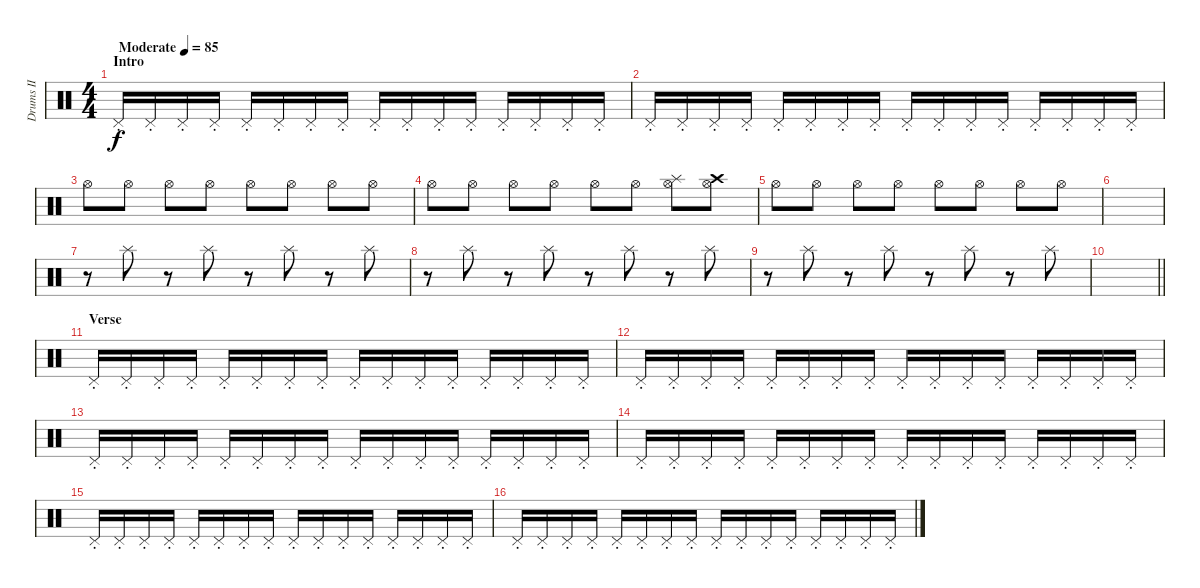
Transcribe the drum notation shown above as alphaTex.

\track ("Drums II" "Drums II") {instrument percussion}
\staff {score}
\articulation defaults
\ts (4 4)
\section ("" "Intro")
\tempo (85 "Moderate")
\clef neutral
\ks c "Pedal Hi-Hat (hit)"{st}.16{dy f} "Pedal Hi-Hat (hit)"{st}.16 "Pedal Hi-Hat (hit)"{st}.16 "Pedal Hi-Hat (hit)"{st}.16 "Pedal Hi-Hat (hit)"{st}.16 "Pedal Hi-Hat (hit)"{st}.16 "Pedal Hi-Hat (hit)"{st}.16 "Pedal Hi-Hat (hit)"{st}.16 "Pedal Hi-Hat (hit)"{st}.16 "Pedal Hi-Hat (hit)"{st}.16 "Pedal Hi-Hat (hit)"{st}.16 "Pedal Hi-Hat (hit)"{st}.16 "Pedal Hi-Hat (hit)"{st}.16 "Pedal Hi-Hat (hit)"{st}.16 "Pedal Hi-Hat (hit)"{st}.16 "Pedal Hi-Hat (hit)"{st}.16
|
"Pedal Hi-Hat (hit)"{st}.16 "Pedal Hi-Hat (hit)"{st}.16 "Pedal Hi-Hat (hit)"{st}.16 "Pedal Hi-Hat (hit)"{st}.16 "Pedal Hi-Hat (hit)"{st}.16 "Pedal Hi-Hat (hit)"{st}.16 "Pedal Hi-Hat (hit)"{st}.16 "Pedal Hi-Hat (hit)"{st}.16 "Pedal Hi-Hat (hit)"{st}.16 "Pedal Hi-Hat (hit)"{st}.16 "Pedal Hi-Hat (hit)"{st}.16 "Pedal Hi-Hat (hit)"{st}.16 "Pedal Hi-Hat (hit)"{st}.16 "Pedal Hi-Hat (hit)"{st}.16 "Pedal Hi-Hat (hit)"{st}.16 "Pedal Hi-Hat (hit)"{st}.16 |
"Hi-Hat (open)".8 "Hi-Hat (open)".8 "Hi-Hat (open)".8 "Hi-Hat (open)".8 "Hi-Hat (open)".8 "Hi-Hat (open)".8 "Hi-Hat (open)".8 "Hi-Hat (open)".8 |
"Hi-Hat (open)".8 "Hi-Hat (open)".8 "Hi-Hat (open)".8 "Hi-Hat (open)".8 "Hi-Hat (open)".8 "Hi-Hat (open)".8 ("Splash (hit)" "Hi-Hat (open)").8 ("Crash high (hit)" "Hi-Hat (open)").8 |
"Hi-Hat (open)".8 "Hi-Hat (open)".8 "Hi-Hat (open)".8 "Hi-Hat (open)".8 "Hi-Hat (open)".8 "Hi-Hat (open)".8 "Hi-Hat (open)".8 "Hi-Hat (open)".8 |
|
r.8 "Splash (hit)".8 r.8 "Splash (hit)".8 r.8 "Splash (hit)".8 r.8 "Splash (hit)".8 |
r.8 "Splash (hit)".8 r.8 "Splash (hit)".8 r.8 "Splash (hit)".8 r.8 "Splash (hit)".8 |
r.8 "Splash (hit)".8 r.8 "Splash (hit)".8 r.8 "Splash (hit)".8 r.8 "Splash (hit)".8 |
\barLineRight lightlight
|
\section ("" "Verse")
"Pedal Hi-Hat (hit)"{st}.16 "Pedal Hi-Hat (hit)"{st}.16 "Pedal Hi-Hat (hit)"{st}.16 "Pedal Hi-Hat (hit)"{st}.16 "Pedal Hi-Hat (hit)"{st}.16 "Pedal Hi-Hat (hit)"{st}.16 "Pedal Hi-Hat (hit)"{st}.16 "Pedal Hi-Hat (hit)"{st}.16 "Pedal Hi-Hat (hit)"{st}.16 "Pedal Hi-Hat (hit)"{st}.16 "Pedal Hi-Hat (hit)"{st}.16 "Pedal Hi-Hat (hit)"{st}.16 "Pedal Hi-Hat (hit)"{st}.16 "Pedal Hi-Hat (hit)"{st}.16 "Pedal Hi-Hat (hit)"{st}.16 "Pedal Hi-Hat (hit)"{st}.16 |
"Pedal Hi-Hat (hit)"{st}.16 "Pedal Hi-Hat (hit)"{st}.16 "Pedal Hi-Hat (hit)"{st}.16 "Pedal Hi-Hat (hit)"{st}.16 "Pedal Hi-Hat (hit)"{st}.16 "Pedal Hi-Hat (hit)"{st}.16 "Pedal Hi-Hat (hit)"{st}.16 "Pedal Hi-Hat (hit)"{st}.16 "Pedal Hi-Hat (hit)"{st}.16 "Pedal Hi-Hat (hit)"{st}.16 "Pedal Hi-Hat (hit)"{st}.16 "Pedal Hi-Hat (hit)"{st}.16 "Pedal Hi-Hat (hit)"{st}.16 "Pedal Hi-Hat (hit)"{st}.16 "Pedal Hi-Hat (hit)"{st}.16 "Pedal Hi-Hat (hit)"{st}.16 |
"Pedal Hi-Hat (hit)"{st}.16 "Pedal Hi-Hat (hit)"{st}.16 "Pedal Hi-Hat (hit)"{st}.16 "Pedal Hi-Hat (hit)"{st}.16 "Pedal Hi-Hat (hit)"{st}.16 "Pedal Hi-Hat (hit)"{st}.16 "Pedal Hi-Hat (hit)"{st}.16 "Pedal Hi-Hat (hit)"{st}.16 "Pedal Hi-Hat (hit)"{st}.16 "Pedal Hi-Hat (hit)"{st}.16 "Pedal Hi-Hat (hit)"{st}.16 "Pedal Hi-Hat (hit)"{st}.16 "Pedal Hi-Hat (hit)"{st}.16 "Pedal Hi-Hat (hit)"{st}.16 "Pedal Hi-Hat (hit)"{st}.16 "Pedal Hi-Hat (hit)"{st}.16 |
"Pedal Hi-Hat (hit)"{st}.16 "Pedal Hi-Hat (hit)"{st}.16 "Pedal Hi-Hat (hit)"{st}.16 "Pedal Hi-Hat (hit)"{st}.16 "Pedal Hi-Hat (hit)"{st}.16 "Pedal Hi-Hat (hit)"{st}.16 "Pedal Hi-Hat (hit)"{st}.16 "Pedal Hi-Hat (hit)"{st}.16 "Pedal Hi-Hat (hit)"{st}.16 "Pedal Hi-Hat (hit)"{st}.16 "Pedal Hi-Hat (hit)"{st}.16 "Pedal Hi-Hat (hit)"{st}.16 "Pedal Hi-Hat (hit)"{st}.16 "Pedal Hi-Hat (hit)"{st}.16 "Pedal Hi-Hat (hit)"{st}.16 "Pedal Hi-Hat (hit)"{st}.16 |
"Pedal Hi-Hat (hit)"{st}.16 "Pedal Hi-Hat (hit)"{st}.16 "Pedal Hi-Hat (hit)"{st}.16 "Pedal Hi-Hat (hit)"{st}.16 "Pedal Hi-Hat (hit)"{st}.16 "Pedal Hi-Hat (hit)"{st}.16 "Pedal Hi-Hat (hit)"{st}.16 "Pedal Hi-Hat (hit)"{st}.16 "Pedal Hi-Hat (hit)"{st}.16 "Pedal Hi-Hat (hit)"{st}.16 "Pedal Hi-Hat (hit)"{st}.16 "Pedal Hi-Hat (hit)"{st}.16 "Pedal Hi-Hat (hit)"{st}.16 "Pedal Hi-Hat (hit)"{st}.16 "Pedal Hi-Hat (hit)"{st}.16 "Pedal Hi-Hat (hit)"{st}.16 |
"Pedal Hi-Hat (hit)"{st}.16 "Pedal Hi-Hat (hit)"{st}.16 "Pedal Hi-Hat (hit)"{st}.16 "Pedal Hi-Hat (hit)"{st}.16 "Pedal Hi-Hat (hit)"{st}.16 "Pedal Hi-Hat (hit)"{st}.16 "Pedal Hi-Hat (hit)"{st}.16 "Pedal Hi-Hat (hit)"{st}.16 "Pedal Hi-Hat (hit)"{st}.16 "Pedal Hi-Hat (hit)"{st}.16 "Pedal Hi-Hat (hit)"{st}.16 "Pedal Hi-Hat (hit)"{st}.16 "Pedal Hi-Hat (hit)"{st}.16 "Pedal Hi-Hat (hit)"{st}.16 "Pedal Hi-Hat (hit)"{st}.16 "Pedal Hi-Hat (hit)"{st}.16
